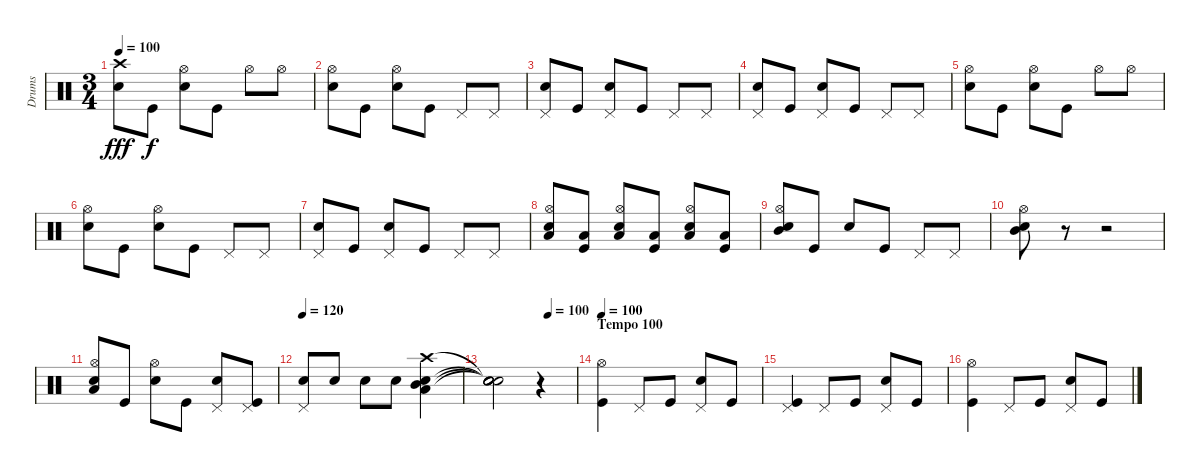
\track ("Drums" "Drums") {instrument percussion}
\staff {score}
\articulation defaults
\ts (3 4)
\tempo 100
\clef neutral
\ks c
("Crash high (hit)" "Snare (hit) 2").8{dy fff} "Kick (hit)".8{dy f} ("Hi-Hat (open)" "Snare (hit) 2").8 "Kick (hit)".8 "Hi-Hat (open)".8 "Hi-Hat (open)".8 |
("Hi-Hat (open)" "Snare (hit) 2").8 "Kick (hit)".8 ("Hi-Hat (open)" "Snare (hit) 2").8 "Kick (hit)".8 "Pedal Hi-Hat (hit)".8 "Pedal Hi-Hat (hit)".8 |
("Pedal Hi-Hat (hit)" "Snare (hit) 2").8 "Kick (hit)".8 ("Pedal Hi-Hat (hit)" "Snare (hit) 2").8 "Kick (hit)".8 "Pedal Hi-Hat (hit)".8 "Pedal Hi-Hat (hit)".8 |
("Pedal Hi-Hat (hit)" "Snare (hit) 2").8 "Kick (hit)".8 ("Pedal Hi-Hat (hit)" "Snare (hit) 2").8 "Kick (hit)".8 "Pedal Hi-Hat (hit)".8 "Pedal Hi-Hat (hit)".8 |
("Hi-Hat (open)" "Snare (hit) 2").8 "Kick (hit)".8 ("Hi-Hat (open)" "Snare (hit) 2").8 "Kick (hit)".8 "Hi-Hat (open)".8 "Hi-Hat (open)".8 |
("Hi-Hat (open)" "Snare (hit) 2").8 "Kick (hit)".8 ("Hi-Hat (open)" "Snare (hit) 2").8 "Kick (hit)".8 "Pedal Hi-Hat (hit)".8 "Pedal Hi-Hat (hit)".8 |
("Pedal Hi-Hat (hit)" "Snare (hit) 2").8 "Kick (hit)".8 ("Pedal Hi-Hat (hit)" "Snare (hit) 2").8 "Kick (hit)".8 "Pedal Hi-Hat (hit)".8 "Pedal Hi-Hat (hit)".8 |
("Low Tom (hit)" "Hi-Hat (open)" "Snare (hit) 2").8 ("Low Tom (hit)" "Kick (hit)").8 ("Low Tom (hit)" "Hi-Hat (open)" "Snare (hit) 2").8 ("Low Tom (hit)" "Kick (hit)").8 ("Low Tom (hit)" "Hi-Hat (open)" "Snare (hit) 2").8 ("Low Tom (hit)" "Kick (hit)").8 |
("Hi-Hat (open)" "Mid Tom (hit)" "Snare (hit) 2").8 "Kick (hit)".8 "Snare (hit) 2".8 "Kick (hit)".8 "Pedal Hi-Hat (hit)".8 "Pedal Hi-Hat (hit)".8 |
("Hi-Hat (open)" "Mid Tom (hit)" "Snare (hit) 2").8 r.8 r.2 |
("Hi-Hat (open)" "Low Tom (hit)" "Snare (hit) 2").8 "Kick (hit)".8 ("Hi-Hat (open)" "Snare (hit) 2").8 "Kick (hit)".8 ("Pedal Hi-Hat (hit)" "Snare (hit) 2").8 ("Pedal Hi-Hat (hit)" "Kick (hit)").8 |
\tempo 120
("Pedal Hi-Hat (hit)" "Snare (hit) 2").8 "Snare (hit) 2".8 "Snare (hit) 2".8 "Snare (hit) 2".8 ("Crash high (hit)" "Mid Tom (hit)" "Low Tom (hit)" "Snare (hit) 2").4 |
\tempo (100 0.6666666666666666)
("Snare (hit)"{t} "Snare (hit)"{t} "Snare (hit)"{t} "Snare (hit)"{t} "Snare (hit)").2 r.4 |
\section ("" "Tempo 100")
\tempo 100
("Hi-Hat (open)" "Kick (hit)").4 "Pedal Hi-Hat (hit)".8 "Kick (hit)".8 ("Pedal Hi-Hat (hit)" "Snare (hit) 2").8 "Kick (hit)".8 |
("Pedal Hi-Hat (hit)" "Kick (hit)").4 "Pedal Hi-Hat (hit)".8 "Kick (hit)".8 ("Pedal Hi-Hat (hit)" "Snare (hit) 2").8 "Kick (hit)".8 |
("Hi-Hat (open)" "Kick (hit)").4 "Pedal Hi-Hat (hit)".8 "Kick (hit)".8 ("Pedal Hi-Hat (hit)" "Snare (hit) 2").8 "Kick (hit)".8
